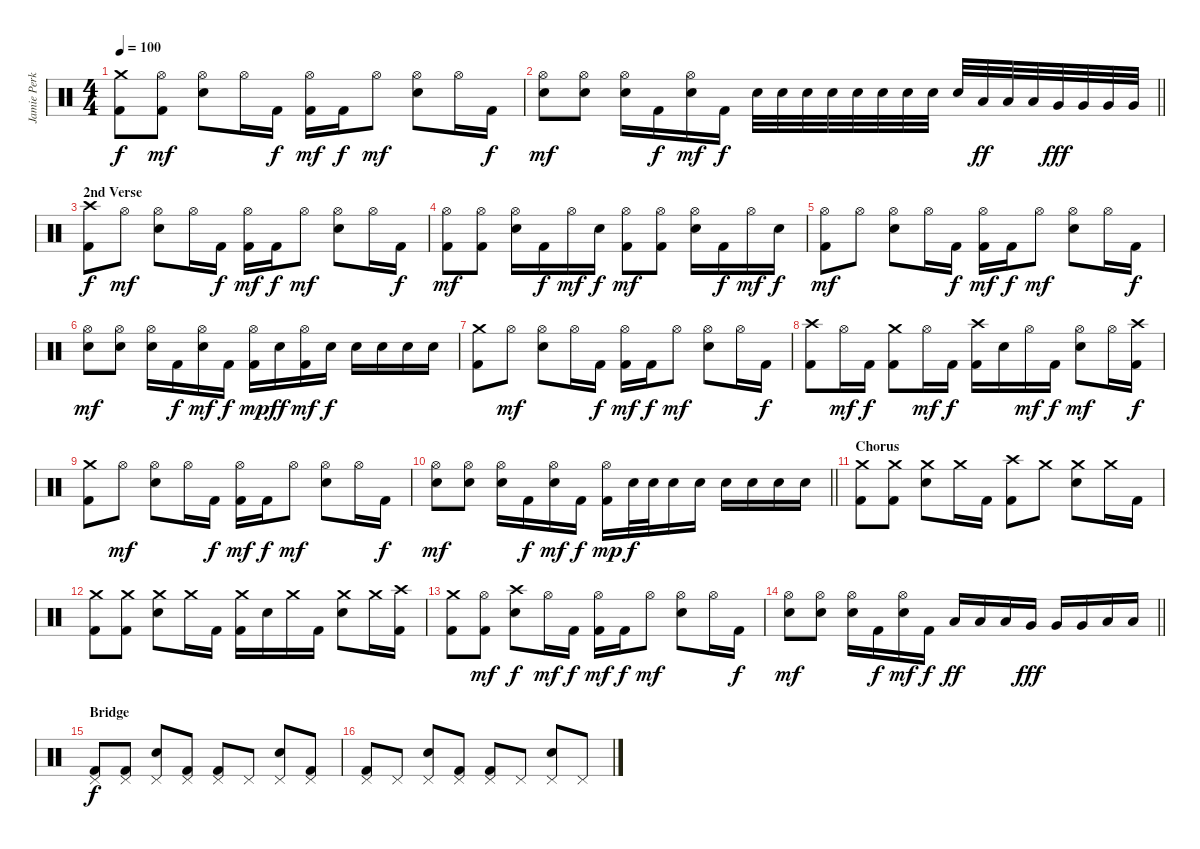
\track ("Jamie Perkins" "Jamie Perk") {instrument percussion}
\staff {score}
\articulation defaults
\ts (4 4)
\tempo 100
\clef neutral
\ks c
("Crash medium (hit)" "Kick (hit) 2").8{dy f} ("Hi-Hat (open)" "Kick (hit) 2").8{dy mf} ("Hi-Hat (open)" "Snare (hit) 2").8 "Hi-Hat (open)".16 "Kick (hit) 2".16{dy f} ("Hi-Hat (open)" "Kick (hit) 2").16{dy mf} "Kick (hit) 2".16{dy f} "Hi-Hat (open)".8{dy mf} ("Hi-Hat (open)" "Snare (hit) 2").8 "Hi-Hat (open)".16 "Kick (hit) 2".16{dy f} |
\barLineRight lightlight
("Hi-Hat (open)" "Snare (hit) 2").8{dy mf} ("Hi-Hat (open)" "Snare (hit) 2").8 ("Hi-Hat (open)" "Snare (hit) 2").16 "Kick (hit) 2".16{dy f} ("Hi-Hat (open)" "Snare (hit) 2").16{dy mf} "Kick (hit) 2".16{dy f} "Snare (hit) 2".32 "Snare (hit) 2".32 "Snare (hit) 2".32 "Snare (hit) 2".32 "Snare (hit) 2".32 "Snare (hit) 2".32 "Snare (hit) 2".32 "Snare (hit) 2".32 "Snare (hit) 2".32 "Low Tom (hit)".32{dy ff} "Low Tom (hit)".32 "Low Tom (hit)".32 "Very Low Tom (hit)".32{dy fff} "Very Low Tom (hit)".32 "Very Low Tom (hit)".32 "Very Low Tom (hit)".32 |
\section ("" "2nd Verse")
("Crash high (hit)" "Kick (hit) 2").8{dy f} "Hi-Hat (open)".8{dy mf} ("Hi-Hat (open)" "Snare (hit) 2").8 "Hi-Hat (open)".16 "Kick (hit) 2".16{dy f} ("Hi-Hat (open)" "Kick (hit) 2").16{dy mf} "Kick (hit) 2".16{dy f} "Hi-Hat (open)".8{dy mf} ("Hi-Hat (open)" "Snare (hit) 2").8 "Hi-Hat (open)".16 "Kick (hit) 2".16{dy f} |
("Hi-Hat (open)" "Kick (hit) 2").8{dy mf} ("Hi-Hat (open)" "Kick (hit) 2").8 ("Hi-Hat (open)" "Snare (hit) 2").16 "Kick (hit) 2".16{dy f} "Hi-Hat (open)".16{dy mf} "Snare (hit) 2".16{dy f} ("Hi-Hat (open)" "Kick (hit) 2").8{dy mf} ("Hi-Hat (open)" "Kick (hit) 2").8 ("Hi-Hat (open)" "Snare (hit) 2").16 "Kick (hit) 2".16{dy f} "Hi-Hat (open)".16{dy mf} "Snare (hit) 2".16{dy f} |
("Hi-Hat (open)" "Kick (hit) 2").8{dy mf} "Hi-Hat (open)".8 ("Hi-Hat (open)" "Snare (hit) 2").8 "Hi-Hat (open)".16 "Kick (hit) 2".16{dy f} ("Hi-Hat (open)" "Kick (hit) 2").16{dy mf} "Kick (hit) 2".16{dy f} "Hi-Hat (open)".8{dy mf} ("Hi-Hat (open)" "Snare (hit) 2").8 "Hi-Hat (open)".16 "Kick (hit) 2".16{dy f} |
("Hi-Hat (open)" "Snare (hit) 2").8{dy mf} ("Hi-Hat (open)" "Snare (hit) 2").8 ("Hi-Hat (open)" "Snare (hit) 2").16 "Kick (hit) 2".16{dy f} ("Hi-Hat (open)" "Snare (hit) 2").16{dy mf} "Kick (hit) 2".16{dy f} ("Hi-Hat (open)" "Kick (hit) 2").16{dy mp} "Snare (hit) 2".16{dy ff} ("Hi-Hat (open)" "Kick (hit) 2").16{dy mf} "Snare (hit) 2".16{dy f} "Snare (hit) 2".16 "Snare (hit) 2".16 "Snare (hit) 2".16 "Snare (hit) 2".16 |
("Crash medium (hit)" "Kick (hit) 2").8 "Hi-Hat (open)".8{dy mf} ("Hi-Hat (open)" "Snare (hit) 2").8 "Hi-Hat (open)".16 "Kick (hit) 2".16{dy f} ("Hi-Hat (open)" "Kick (hit) 2").16{dy mf} "Kick (hit) 2".16{dy f} "Hi-Hat (open)".8{dy mf} ("Hi-Hat (open)" "Snare (hit) 2").8 "Hi-Hat (open)".16 "Kick (hit) 2".16{dy f} |
("Crash high (hit)" "Kick (hit) 2").8 "Hi-Hat (open)".16{dy mf} "Kick (hit) 2".16{dy f} ("Crash medium (hit)" "Kick (hit) 2").8 "Hi-Hat (open)".16{dy mf} "Kick (hit) 2".16{dy f} ("Crash high (hit)" "Kick (hit) 2").16 "Snare (hit) 2".16 "Hi-Hat (open)".16{dy mf} "Kick (hit) 2".16{dy f} ("Hi-Hat (open)" "Snare (hit) 2").8{dy mf} "Hi-Hat (open)".16 ("Crash high (hit)" "Kick (hit) 2").16{dy f} |
("Crash medium (hit)" "Kick (hit) 2").8 "Hi-Hat (open)".8{dy mf} ("Hi-Hat (open)" "Snare (hit) 2").8 "Hi-Hat (open)".16 "Kick (hit) 2".16{dy f} ("Hi-Hat (open)" "Kick (hit) 2").16{dy mf} "Kick (hit) 2".16{dy f} "Hi-Hat (open)".8{dy mf} ("Hi-Hat (open)" "Snare (hit) 2").8 "Hi-Hat (open)".16 "Kick (hit) 2".16{dy f} |
\barLineRight lightlight
("Hi-Hat (open)" "Snare (hit) 2").8{dy mf} ("Hi-Hat (open)" "Snare (hit) 2").8 ("Hi-Hat (open)" "Snare (hit) 2").16 "Kick (hit) 2".16{dy f} ("Hi-Hat (open)" "Snare (hit) 2").16{dy mf} "Kick (hit) 2".16{dy f} ("Hi-Hat (open)" "Kick (hit) 2").16{dy mp} "Snare (hit) 2".32{dy f} "Snare (hit) 2".32 "Snare (hit) 2".16 "Snare (hit) 2".16 "Snare (hit) 2".16 "Snare (hit) 2".16 "Snare (hit) 2".16 "Snare (hit) 2".16 |
\section ("" "Chorus")
("Crash medium (hit)" "Kick (hit) 2").8 ("Crash medium (hit)" "Kick (hit) 2").8 ("Crash medium (hit)" "Snare (hit) 2").8 "Crash medium (hit)".16 "Kick (hit) 2".16 ("Crash high (hit)" "Kick (hit) 2").8 "Crash medium (hit)".8 ("Crash medium (hit)" "Snare (hit) 2").8 "Crash medium (hit)".16 "Kick (hit) 2".16 |
("Crash medium (hit)" "Kick (hit) 2").8 ("Crash medium (hit)" "Kick (hit) 2").8 ("Crash medium (hit)" "Snare (hit) 2").8 "Crash medium (hit)".16 "Kick (hit) 2".16 ("Crash medium (hit)" "Kick (hit) 2").16 "Snare (hit) 2".16 "Crash medium (hit)".16 "Kick (hit) 2".16 ("Crash medium (hit)" "Snare (hit) 2").8 "Crash medium (hit)".16 ("Crash high (hit)" "Kick (hit) 2").16 |
("Crash medium (hit)" "Kick (hit) 2").8 ("Hi-Hat (open)" "Kick (hit) 2").8{dy mf} ("Crash high (hit)" "Snare (hit) 2").8{dy f} "Hi-Hat (open)".16{dy mf} "Kick (hit) 2".16{dy f} ("Hi-Hat (open)" "Kick (hit) 2").16{dy mf} "Kick (hit) 2".16{dy f} "Hi-Hat (open)".8{dy mf} ("Hi-Hat (open)" "Snare (hit) 2").8 "Hi-Hat (open)".16 "Kick (hit) 2".16{dy f} |
\barLineRight lightlight
("Hi-Hat (open)" "Snare (hit) 2").8{dy mf} ("Hi-Hat (open)" "Snare (hit) 2").8 ("Hi-Hat (open)" "Snare (hit) 2").16 "Kick (hit) 2".16{dy f} ("Hi-Hat (open)" "Snare (hit) 2").16{dy mf} "Kick (hit) 2".16{dy f} "Low Tom (hit)".16{dy ff} "Low Tom (hit)".16 "Low Tom (hit)".16 "Very Low Tom (hit)".16{dy fff} "Very Low Tom (hit)".16 "Very Low Tom (hit)".16 "Low Floor Tom (hit)".16 "Low Floor Tom (hit)".16 |
\section ("" "Bridge")
("Pedal Hi-Hat (hit)" "Kick (hit) 2").8{dy f} ("Pedal Hi-Hat (hit)" "Kick (hit) 2").8 ("Pedal Hi-Hat (hit)" "Snare (hit) 2").8 ("Pedal Hi-Hat (hit)" "Kick (hit) 2").8 ("Pedal Hi-Hat (hit)" "Kick (hit) 2").8 "Pedal Hi-Hat (hit)".8 ("Pedal Hi-Hat (hit)" "Snare (hit) 2").8 ("Pedal Hi-Hat (hit)" "Kick (hit) 2").8 |
("Pedal Hi-Hat (hit)" "Kick (hit) 2").8 "Pedal Hi-Hat (hit)".8 ("Pedal Hi-Hat (hit)" "Snare (hit) 2").8 ("Pedal Hi-Hat (hit)" "Kick (hit) 2").8 ("Pedal Hi-Hat (hit)" "Kick (hit) 2").8 "Pedal Hi-Hat (hit)".8 ("Pedal Hi-Hat (hit)" "Snare (hit) 2").8 "Pedal Hi-Hat (hit)".8
